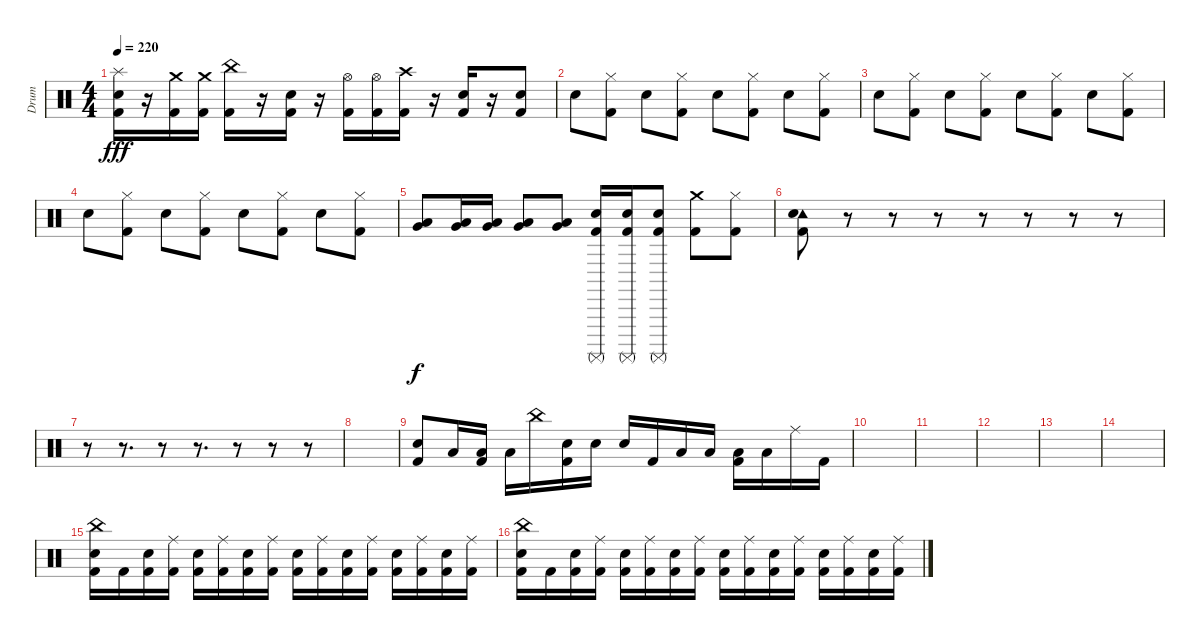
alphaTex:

\track ("Drum" "Drum") {instrument percussion}
\staff {score}
\articulation defaults
\ts (4 4)
\tempo 220
\clef neutral
\ks c
("Electric Snare (hit)" "Splash (hit)" "Kick (hit) 2").16{dy fff} r.16 ("Crash medium (hit)" "Kick (hit) 2").16 ("Crash medium (hit)" "Kick (hit) 2").16 ("China (hit)" "Kick (hit) 2").16 r.16 ("Electric Snare (hit)" "Kick (hit) 2").16 r.16 ("Hi-Hat (open)" "Kick (hit) 2").16 ("Hi-Hat (open)" "Kick (hit) 2").16 ("Crash high (hit)" "Kick (hit) 2").16 r.16 ("Electric Snare (hit)" "Kick (hit) 2").16 r.16 ("Electric Snare (hit)" "Kick (hit) 2").8 |
"Electric Snare (hit)".8 ("Hi-Hat (closed)" "Kick (hit) 2").8 "Electric Snare (hit)".8 ("Hi-Hat (closed)" "Kick (hit) 2").8 "Electric Snare (hit)".8 ("Hi-Hat (closed)" "Kick (hit) 2").8 "Electric Snare (hit)".8 ("Hi-Hat (closed)" "Kick (hit) 2").8 |
"Electric Snare (hit)".8 ("Hi-Hat (closed)" "Kick (hit) 2").8 "Electric Snare (hit)".8 ("Hi-Hat (closed)" "Kick (hit) 2").8 "Electric Snare (hit)".8 ("Hi-Hat (closed)" "Kick (hit) 2").8 "Electric Snare (hit)".8 ("Hi-Hat (closed)" "Kick (hit) 2").8 |
"Electric Snare (hit)".8 ("Hi-Hat (closed)" "Kick (hit) 2").8 "Electric Snare (hit)".8 ("Hi-Hat (closed)" "Kick (hit) 2").8 "Electric Snare (hit)".8 ("Hi-Hat (closed)" "Kick (hit) 2").8 "Electric Snare (hit)".8 ("Hi-Hat (closed)" "Kick (hit) 2").8 |
("Low Floor Tom (hit)" "Very Low Tom (hit)").8{dy f} ("Low Floor Tom (hit)" "Very Low Tom (hit)").16 ("Low Floor Tom (hit)" "Very Low Tom (hit)").16 ("Low Floor Tom (hit)" "Very Low Tom (hit)").8 ("Low Floor Tom (hit)" "Very Low Tom (hit)").8 ("Electric Snare (hit)" "Surdo (mute)" "Kick (hit) 2").16 ("Electric Snare (hit)" "Surdo (mute)" "Kick (hit) 2").16 ("Electric Snare (hit)" "Surdo (mute)" "Kick (hit) 2").8 ("Crash medium (hit)" "Kick (hit) 2").8 ("Hi-Hat (closed)" "Kick (hit) 2").8 |
("Tambourine (hit)" "Electric Snare (hit)" "Kick (hit) 2").8 r.8 r.8 r.8 r.8 r.8 r.8 r.8 |
r.8 r.8{d} r.8 r.8{d} r.8 r.8 r.8 |
|
("Electric Snare (hit)" "Kick (hit) 2").8 "Low Tom (hit)".16 ("Low Tom (hit)" "Kick (hit) 2").16 "Low Tom (hit)".16 "China (hit)".16 ("Electric Snare (hit)" "Kick (hit) 2").16 "Electric Snare (hit)".16 "Electric Snare (hit)".16 "Kick (hit) 2".16 "Low Floor Tom (hit)".16 "Low Floor Tom (hit)".16 ("Low Floor Tom (hit)" "Kick (hit) 2").16 "Low Floor Tom (hit)".16 "Ride (middle)".16 "Kick (hit) 2".16 |
|
|
|
|
|
("China (hit)" "Electric Snare (hit)" "Kick (hit) 2").16 "Kick (hit) 2".16 ("Electric Snare (hit)" "Kick (hit) 2").16 ("Ride (middle)" "Kick (hit) 2").16 ("Electric Snare (hit)" "Kick (hit) 2").16 ("Ride (middle)" "Kick (hit) 2").16 ("Electric Snare (hit)" "Kick (hit) 2").16 ("Ride (middle)" "Kick (hit) 2").16 ("Electric Snare (hit)" "Kick (hit) 2").16 ("Ride (middle)" "Kick (hit) 2").16 ("Electric Snare (hit)" "Kick (hit) 2").16 ("Ride (middle)" "Kick (hit) 2").16 ("Electric Snare (hit)" "Kick (hit) 2").16 ("Ride (middle)" "Kick (hit) 2").16 ("Electric Snare (hit)" "Kick (hit) 2").16 ("Ride (middle)" "Kick (hit) 2").16 |
("China (hit)" "Electric Snare (hit)" "Kick (hit) 2").16 "Kick (hit) 2".16 ("Electric Snare (hit)" "Kick (hit) 2").16 ("Ride (middle)" "Kick (hit) 2").16 ("Electric Snare (hit)" "Kick (hit) 2").16 ("Ride (middle)" "Kick (hit) 2").16 ("Electric Snare (hit)" "Kick (hit) 2").16 ("Ride (middle)" "Kick (hit) 2").16 ("Electric Snare (hit)" "Kick (hit) 2").16 ("Ride (middle)" "Kick (hit) 2").16 ("Electric Snare (hit)" "Kick (hit) 2").16 ("Ride (middle)" "Kick (hit) 2").16 ("Electric Snare (hit)" "Kick (hit) 2").16 ("Ride (middle)" "Kick (hit) 2").16 ("Electric Snare (hit)" "Kick (hit) 2").16 ("Ride (middle)" "Kick (hit) 2").16
